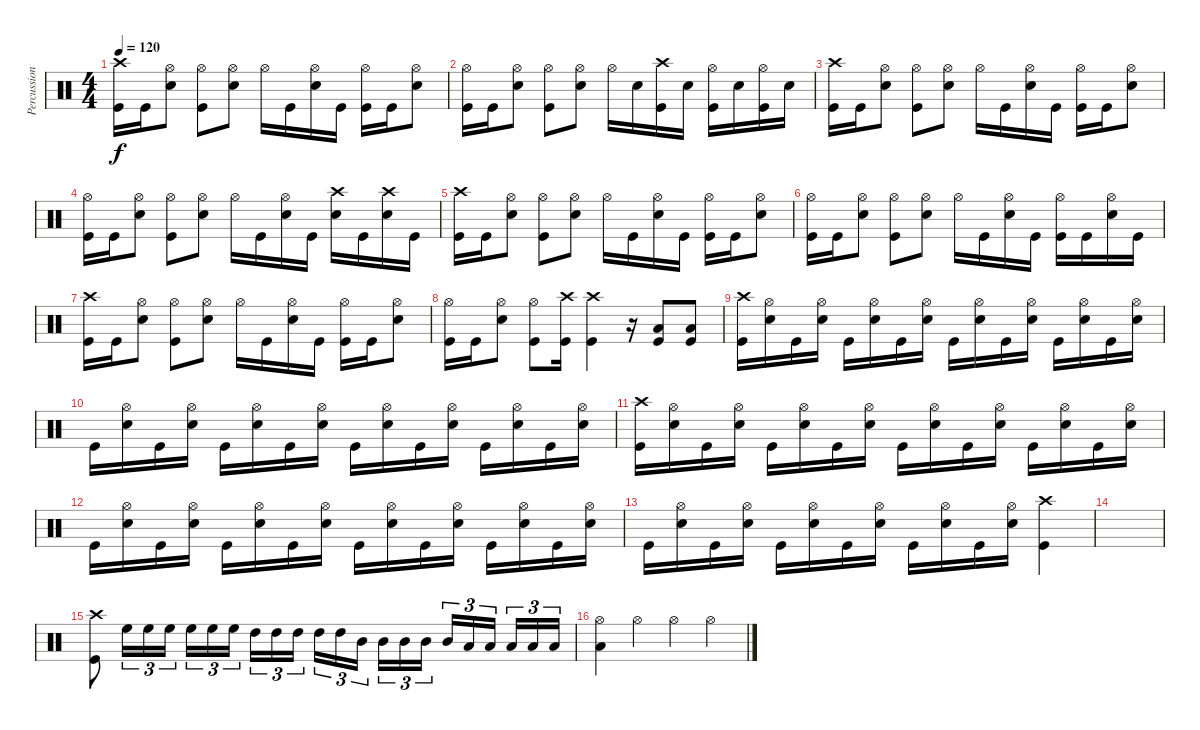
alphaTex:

\track ("Percussion" "Percussion") {instrument percussion}
\staff {score}
\articulation defaults
\ts (4 4)
\tempo 120
\clef neutral
\ks c
("Crash high (hit)" "Kick (hit)").16{dy f} "Kick (hit)".16 ("Hi-Hat (open)" "Electric Snare (hit)").8 ("Hi-Hat (open)" "Kick (hit)").8 ("Electric Snare (hit)" "Hi-Hat (open)").8 "Hi-Hat (open)".16 "Kick (hit)".16 ("Hi-Hat (open)" "Electric Snare (hit)").16 "Kick (hit)".16 ("Hi-Hat (open)" "Kick (hit)").16 "Kick (hit)".16 ("Hi-Hat (open)" "Electric Snare (hit)").8 |
("Hi-Hat (open)" "Kick (hit)").16 "Kick (hit)".16 ("Hi-Hat (open)" "Electric Snare (hit)").8 ("Hi-Hat (open)" "Kick (hit)").8 ("Electric Snare (hit)" "Hi-Hat (open)").8 "Hi-Hat (open)".16 "Electric Snare (hit)".16 ("Crash high (hit)" "Kick (hit)").16 "Electric Snare (hit)".16 ("Hi-Hat (open)" "Kick (hit)").16 "Electric Snare (hit)".16 ("Hi-Hat (open)" "Kick (hit)").16 "Electric Snare (hit)".16 |
("Crash high (hit)" "Kick (hit)").16 "Kick (hit)".16 ("Hi-Hat (open)" "Electric Snare (hit)").8 ("Hi-Hat (open)" "Kick (hit)").8 ("Electric Snare (hit)" "Hi-Hat (open)").8 "Hi-Hat (open)".16 "Kick (hit)".16 ("Hi-Hat (open)" "Electric Snare (hit)").16 "Kick (hit)".16 ("Hi-Hat (open)" "Kick (hit)").16 "Kick (hit)".16 ("Hi-Hat (open)" "Electric Snare (hit)").8 |
("Hi-Hat (open)" "Kick (hit)").16 "Kick (hit)".16 ("Hi-Hat (open)" "Electric Snare (hit)").8 ("Hi-Hat (open)" "Kick (hit)").8 ("Electric Snare (hit)" "Hi-Hat (open)").8 "Hi-Hat (open)".16 "Kick (hit)".16 ("Hi-Hat (open)" "Electric Snare (hit)").16 "Kick (hit)".16 ("Crash high (hit)" "Electric Snare (hit)").16 "Kick (hit)".16 ("Crash high (hit)" "Electric Snare (hit)").16 "Kick (hit)".16 |
("Crash high (hit)" "Kick (hit)").16 "Kick (hit)".16 ("Hi-Hat (open)" "Electric Snare (hit)").8 ("Hi-Hat (open)" "Kick (hit)").8 ("Electric Snare (hit)" "Hi-Hat (open)").8 "Hi-Hat (open)".16 "Kick (hit)".16 ("Hi-Hat (open)" "Electric Snare (hit)").16 "Kick (hit)".16 ("Hi-Hat (open)" "Kick (hit)").16 "Kick (hit)".16 ("Hi-Hat (open)" "Electric Snare (hit)").8 |
("Hi-Hat (open)" "Kick (hit)").16 "Kick (hit)".16 ("Hi-Hat (open)" "Electric Snare (hit)").8 ("Hi-Hat (open)" "Kick (hit)").8 ("Electric Snare (hit)" "Hi-Hat (open)").8 "Hi-Hat (open)".16 "Kick (hit)".16 ("Hi-Hat (open)" "Electric Snare (hit)").16 "Kick (hit)".16 ("Hi-Hat (open)" "Kick (hit)").16 "Kick (hit)".16 ("Hi-Hat (open)" "Electric Snare (hit)").16 "Kick (hit)".16 |
("Crash high (hit)" "Kick (hit)").16 "Kick (hit)".16 ("Hi-Hat (open)" "Electric Snare (hit)").8 ("Hi-Hat (open)" "Kick (hit)").8 ("Electric Snare (hit)" "Hi-Hat (open)").8 "Hi-Hat (open)".16 "Kick (hit)".16 ("Hi-Hat (open)" "Electric Snare (hit)").16 "Kick (hit)".16 ("Hi-Hat (open)" "Kick (hit)").16 "Kick (hit)".16 ("Hi-Hat (open)" "Electric Snare (hit)").8 |
("Hi-Hat (open)" "Kick (hit)").16 "Kick (hit)".16 ("Hi-Hat (open)" "Electric Snare (hit)").8 ("Hi-Hat (open)" "Kick (hit)").8 ("Crash high (hit)" "Kick (hit)").16 ("Kick (hit)" "Crash high (hit)").4 r.16 ("Low Tom (hit)" "Kick (hit)").8 ("Low Tom (hit)" "Kick (hit)").8 |
("Kick (hit)" "Crash high (hit)").16 ("Electric Snare (hit)" "Hi-Hat (open)").16 "Kick (hit)".16 ("Electric Snare (hit)" "Hi-Hat (open)").16 "Kick (hit)".16 ("Electric Snare (hit)" "Hi-Hat (open)").16 "Kick (hit)".16 ("Electric Snare (hit)" "Hi-Hat (open)").16 "Kick (hit)".16 ("Electric Snare (hit)" "Hi-Hat (open)").16 "Kick (hit)".16 ("Electric Snare (hit)" "Hi-Hat (open)").16 "Kick (hit)".16 ("Electric Snare (hit)" "Hi-Hat (open)").16 "Kick (hit)".16 ("Electric Snare (hit)" "Hi-Hat (open)").16 |
"Kick (hit)".16 ("Electric Snare (hit)" "Hi-Hat (open)").16 "Kick (hit)".16 ("Electric Snare (hit)" "Hi-Hat (open)").16 "Kick (hit)".16 ("Electric Snare (hit)" "Hi-Hat (open)").16 "Kick (hit)".16 ("Electric Snare (hit)" "Hi-Hat (open)").16 "Kick (hit)".16 ("Electric Snare (hit)" "Hi-Hat (open)").16 "Kick (hit)".16 ("Electric Snare (hit)" "Hi-Hat (open)").16 "Kick (hit)".16 ("Electric Snare (hit)" "Hi-Hat (open)").16 "Kick (hit)".16 ("Electric Snare (hit)" "Hi-Hat (open)").16 |
("Kick (hit)" "Crash high (hit)").16 ("Electric Snare (hit)" "Hi-Hat (open)").16 "Kick (hit)".16 ("Electric Snare (hit)" "Hi-Hat (open)").16 "Kick (hit)".16 ("Electric Snare (hit)" "Hi-Hat (open)").16 "Kick (hit)".16 ("Electric Snare (hit)" "Hi-Hat (open)").16 "Kick (hit)".16 ("Electric Snare (hit)" "Hi-Hat (open)").16 "Kick (hit)".16 ("Electric Snare (hit)" "Hi-Hat (open)").16 "Kick (hit)".16 ("Electric Snare (hit)" "Hi-Hat (open)").16 "Kick (hit)".16 ("Electric Snare (hit)" "Hi-Hat (open)").16 |
"Kick (hit)".16 ("Electric Snare (hit)" "Hi-Hat (open)").16 "Kick (hit)".16 ("Electric Snare (hit)" "Hi-Hat (open)").16 "Kick (hit)".16 ("Electric Snare (hit)" "Hi-Hat (open)").16 "Kick (hit)".16 ("Electric Snare (hit)" "Hi-Hat (open)").16 "Kick (hit)".16 ("Electric Snare (hit)" "Hi-Hat (open)").16 "Kick (hit)".16 ("Electric Snare (hit)" "Hi-Hat (open)").16 "Kick (hit)".16 ("Electric Snare (hit)" "Hi-Hat (open)").16 "Kick (hit)".16 ("Electric Snare (hit)" "Hi-Hat (open)").16 |
"Kick (hit)".16 ("Electric Snare (hit)" "Hi-Hat (open)").16 "Kick (hit)".16 ("Electric Snare (hit)" "Hi-Hat (open)").16 "Kick (hit)".16 ("Electric Snare (hit)" "Hi-Hat (open)").16 "Kick (hit)".16 ("Electric Snare (hit)" "Hi-Hat (open)").16 "Kick (hit)".16 ("Electric Snare (hit)" "Hi-Hat (open)").16 "Kick (hit)".16 ("Electric Snare (hit)" "Hi-Hat (open)").16 ("Kick (hit)" "Crash high (hit)").4 |
|
("Kick (hit)" "Crash high (hit)").8 "High Floor Tom (hit)".16{tu (3 2)} "High Floor Tom (hit)".16{tu (3 2)} "High Floor Tom (hit)".16{tu (3 2)} "High Floor Tom (hit)".16{tu (3 2)} "High Floor Tom (hit)".16{tu (3 2)} "High Floor Tom (hit)".16{tu (3 2)} "High Tom (hit)".16{tu (3 2)} "High Tom (hit)".16{tu (3 2)} "High Tom (hit)".16{tu (3 2)} "High Tom (hit)".16{tu (3 2)} "High Tom (hit)".16{tu (3 2)} "Mid Tom (hit)".16{tu (3 2)} "Mid Tom (hit)".16{tu (3 2)} "Mid Tom (hit)".16{tu (3 2)} "Mid Tom (hit)".16{tu (3 2)} "Mid Tom (hit)".16{tu (3 2)} "Low Tom (hit)".16{tu (3 2)} "Low Tom (hit)".16{tu (3 2)} "Low Tom (hit)".16{tu (3 2)} "Low Tom (hit)".16{tu (3 2)} "Low Tom (hit)".16{tu (3 2)} |
("Low Tom (hit)" "Hi-Hat (open)").4 "Hi-Hat (open)".4 "Hi-Hat (open)".4 "Hi-Hat (open)".4
